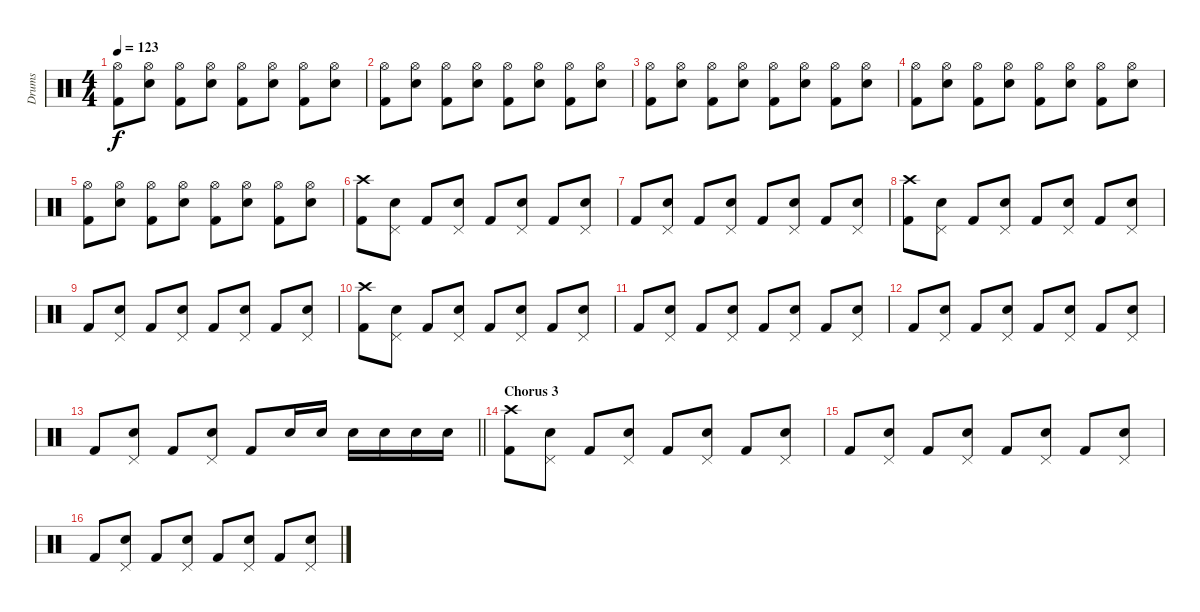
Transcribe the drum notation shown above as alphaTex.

\track ("Drums" "Drums") {instrument percussion}
\staff {score}
\articulation defaults
\ts (4 4)
\tempo 123
\clef neutral
\ks c
("Hi-Hat (open)" "Kick (hit) 2").8{dy f} ("Hi-Hat (open)" "Snare (hit) 2").8 ("Hi-Hat (open)" "Kick (hit) 2").8 ("Hi-Hat (open)" "Snare (hit) 2").8 ("Hi-Hat (open)" "Kick (hit) 2").8 ("Hi-Hat (open)" "Snare (hit) 2").8 ("Hi-Hat (open)" "Kick (hit) 2").8 ("Hi-Hat (open)" "Snare (hit) 2").8 |
("Hi-Hat (open)" "Kick (hit) 2").8 ("Hi-Hat (open)" "Snare (hit) 2").8 ("Hi-Hat (open)" "Kick (hit) 2").8 ("Hi-Hat (open)" "Snare (hit) 2").8 ("Hi-Hat (open)" "Kick (hit) 2").8 ("Hi-Hat (open)" "Snare (hit) 2").8 ("Hi-Hat (open)" "Kick (hit) 2").8 ("Hi-Hat (open)" "Snare (hit) 2").8 |
("Hi-Hat (open)" "Kick (hit) 2").8 ("Hi-Hat (open)" "Snare (hit) 2").8 ("Hi-Hat (open)" "Kick (hit) 2").8 ("Hi-Hat (open)" "Snare (hit) 2").8 ("Hi-Hat (open)" "Kick (hit) 2").8 ("Hi-Hat (open)" "Snare (hit) 2").8 ("Hi-Hat (open)" "Kick (hit) 2").8 ("Hi-Hat (open)" "Snare (hit) 2").8 |
("Hi-Hat (open)" "Kick (hit) 2").8 ("Hi-Hat (open)" "Snare (hit) 2").8 ("Hi-Hat (open)" "Kick (hit) 2").8 ("Hi-Hat (open)" "Snare (hit) 2").8 ("Hi-Hat (open)" "Kick (hit) 2").8 ("Hi-Hat (open)" "Snare (hit) 2").8 ("Hi-Hat (open)" "Kick (hit) 2").8 ("Hi-Hat (open)" "Snare (hit) 2").8 |
("Hi-Hat (open)" "Kick (hit) 2").8 ("Hi-Hat (open)" "Snare (hit) 2").8 ("Hi-Hat (open)" "Kick (hit) 2").8 ("Hi-Hat (open)" "Snare (hit) 2").8 ("Hi-Hat (open)" "Kick (hit) 2").8 ("Hi-Hat (open)" "Snare (hit) 2").8 ("Hi-Hat (open)" "Kick (hit) 2").8 ("Hi-Hat (open)" "Snare (hit) 2").8 |
("Crash high (hit)" "Kick (hit) 2").8 ("Pedal Hi-Hat (hit)" "Snare (hit) 2").8 "Kick (hit) 2".8 ("Pedal Hi-Hat (hit)" "Snare (hit) 2").8 "Kick (hit) 2".8 ("Pedal Hi-Hat (hit)" "Snare (hit) 2").8 "Kick (hit) 2".8 ("Pedal Hi-Hat (hit)" "Snare (hit) 2").8 |
"Kick (hit) 2".8 ("Pedal Hi-Hat (hit)" "Snare (hit) 2").8 "Kick (hit) 2".8 ("Pedal Hi-Hat (hit)" "Snare (hit) 2").8 "Kick (hit) 2".8 ("Pedal Hi-Hat (hit)" "Snare (hit) 2").8 "Kick (hit) 2".8 ("Pedal Hi-Hat (hit)" "Snare (hit) 2").8 |
("Crash high (hit)" "Kick (hit) 2").8 ("Pedal Hi-Hat (hit)" "Snare (hit) 2").8 "Kick (hit) 2".8 ("Pedal Hi-Hat (hit)" "Snare (hit) 2").8 "Kick (hit) 2".8 ("Pedal Hi-Hat (hit)" "Snare (hit) 2").8 "Kick (hit) 2".8 ("Pedal Hi-Hat (hit)" "Snare (hit) 2").8 |
"Kick (hit) 2".8 ("Pedal Hi-Hat (hit)" "Snare (hit) 2").8 "Kick (hit) 2".8 ("Pedal Hi-Hat (hit)" "Snare (hit) 2").8 "Kick (hit) 2".8 ("Pedal Hi-Hat (hit)" "Snare (hit) 2").8 "Kick (hit) 2".8 ("Pedal Hi-Hat (hit)" "Snare (hit) 2").8 |
("Crash high (hit)" "Kick (hit) 2").8 ("Pedal Hi-Hat (hit)" "Snare (hit) 2").8 "Kick (hit) 2".8 ("Pedal Hi-Hat (hit)" "Snare (hit) 2").8 "Kick (hit) 2".8 ("Pedal Hi-Hat (hit)" "Snare (hit) 2").8 "Kick (hit) 2".8 ("Pedal Hi-Hat (hit)" "Snare (hit) 2").8 |
"Kick (hit) 2".8 ("Pedal Hi-Hat (hit)" "Snare (hit) 2").8 "Kick (hit) 2".8 ("Pedal Hi-Hat (hit)" "Snare (hit) 2").8 "Kick (hit) 2".8 ("Pedal Hi-Hat (hit)" "Snare (hit) 2").8 "Kick (hit) 2".8 ("Pedal Hi-Hat (hit)" "Snare (hit) 2").8 |
"Kick (hit) 2".8 ("Pedal Hi-Hat (hit)" "Snare (hit) 2").8 "Kick (hit) 2".8 ("Pedal Hi-Hat (hit)" "Snare (hit) 2").8 "Kick (hit) 2".8 ("Pedal Hi-Hat (hit)" "Snare (hit) 2").8 "Kick (hit) 2".8 ("Pedal Hi-Hat (hit)" "Snare (hit) 2").8 |
\barLineRight lightlight "Kick (hit) 2".8
("Pedal Hi-Hat (hit)" "Snare (hit) 2").8 "Kick (hit) 2".8 ("Pedal Hi-Hat (hit)" "Snare (hit) 2").8 "Kick (hit) 2".8 "Snare (hit) 2".16 "Snare (hit) 2".16 "Snare (hit) 2".16 "Snare (hit) 2".16 "Snare (hit) 2".16 "Snare (hit) 2".16 |
\section ("" "Chorus 3")
("Crash high (hit)" "Kick (hit) 2").8 ("Pedal Hi-Hat (hit)" "Snare (hit) 2").8 "Kick (hit) 2".8 ("Pedal Hi-Hat (hit)" "Snare (hit) 2").8 "Kick (hit) 2".8 ("Pedal Hi-Hat (hit)" "Snare (hit) 2").8 "Kick (hit) 2".8 ("Pedal Hi-Hat (hit)" "Snare (hit) 2").8 |
"Kick (hit) 2".8 ("Pedal Hi-Hat (hit)" "Snare (hit) 2").8 "Kick (hit) 2".8 ("Pedal Hi-Hat (hit)" "Snare (hit) 2").8 "Kick (hit) 2".8 ("Pedal Hi-Hat (hit)" "Snare (hit) 2").8 "Kick (hit) 2".8 ("Pedal Hi-Hat (hit)" "Snare (hit) 2").8 |
"Kick (hit) 2".8 ("Pedal Hi-Hat (hit)" "Snare (hit) 2").8 "Kick (hit) 2".8 ("Pedal Hi-Hat (hit)" "Snare (hit) 2").8 "Kick (hit) 2".8 ("Pedal Hi-Hat (hit)" "Snare (hit) 2").8 "Kick (hit) 2".8 ("Pedal Hi-Hat (hit)" "Snare (hit) 2").8
